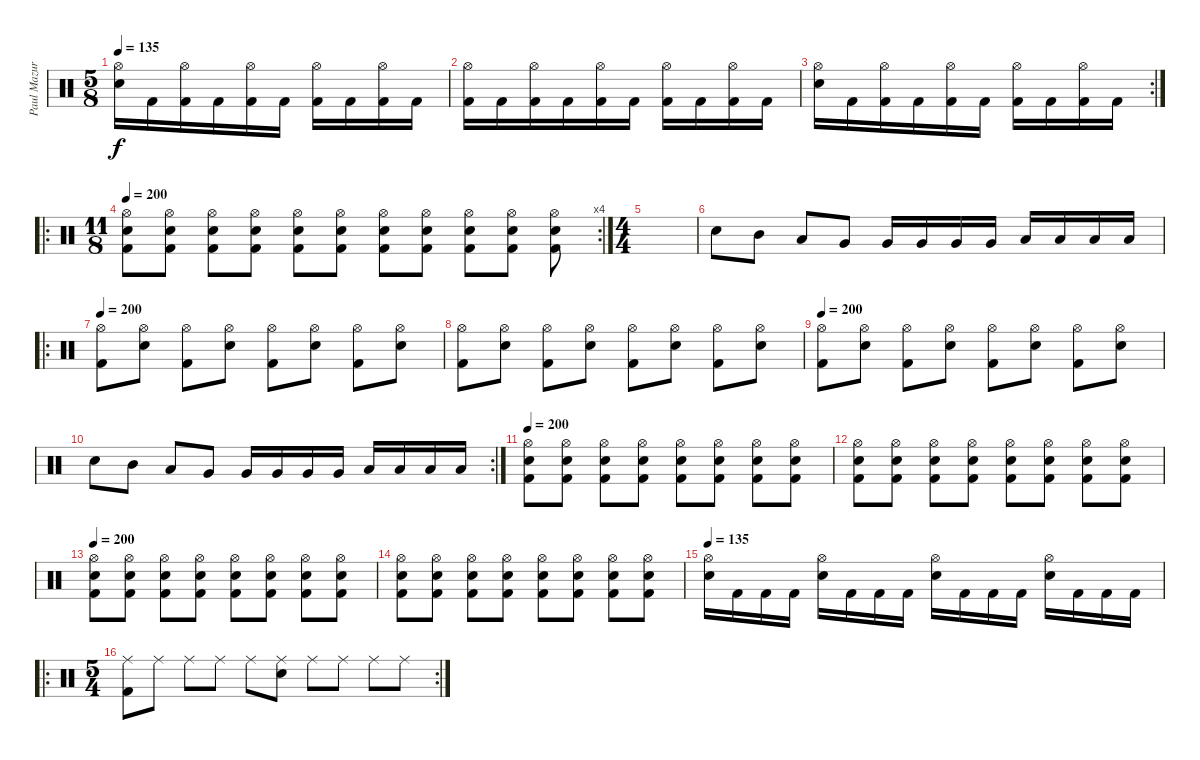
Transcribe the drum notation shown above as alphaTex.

\track ("Paul Mazurkiewicz" "Paul Mazur") {instrument percussion}
\staff {score}
\articulation defaults
\ts (5 8)
\tempo 135
\clef neutral
\ks c
("Hi-Hat (open)" "Snare (hit) 2").16{dy f} "Kick (hit) 2".16 ("Hi-Hat (open)" "Kick (hit) 2").16 "Kick (hit) 2".16 ("Hi-Hat (open)" "Kick (hit) 2").16 "Kick (hit) 2".16 ("Hi-Hat (open)" "Kick (hit) 2").16 "Kick (hit) 2".16 ("Hi-Hat (open)" "Kick (hit) 2").16 "Kick (hit) 2".16 |
("Hi-Hat (open)" "Kick (hit) 2").16 "Kick (hit) 2".16 ("Hi-Hat (open)" "Kick (hit) 2").16 "Kick (hit) 2".16 ("Hi-Hat (open)" "Kick (hit) 2").16 "Kick (hit) 2".16 ("Hi-Hat (open)" "Kick (hit) 2").16 "Kick (hit) 2".16 ("Hi-Hat (open)" "Kick (hit) 2").16 "Kick (hit) 2".16 |
\rc 2
("Hi-Hat (open)" "Snare (hit) 2").16 "Kick (hit) 2".16 ("Hi-Hat (open)" "Kick (hit) 2").16 "Kick (hit) 2".16 ("Hi-Hat (open)" "Kick (hit) 2").16 "Kick (hit) 2".16 ("Hi-Hat (open)" "Kick (hit) 2").16 "Kick (hit) 2".16 ("Hi-Hat (open)" "Kick (hit) 2").16 "Kick (hit) 2".16 |
\ro
\rc 4
\ts (11 8)
\tempo 200
("Hi-Hat (open)" "Kick (hit) 2" "Snare (hit) 2").8 ("Hi-Hat (open)" "Kick (hit) 2" "Snare (hit) 2").8 ("Hi-Hat (open)" "Kick (hit) 2" "Snare (hit) 2").8 ("Hi-Hat (open)" "Kick (hit) 2" "Snare (hit) 2").8 ("Hi-Hat (open)" "Kick (hit) 2" "Snare (hit) 2").8 ("Hi-Hat (open)" "Kick (hit) 2" "Snare (hit) 2").8 ("Hi-Hat (open)" "Kick (hit) 2" "Snare (hit) 2").8 ("Hi-Hat (open)" "Kick (hit) 2" "Snare (hit) 2").8 ("Hi-Hat (open)" "Kick (hit) 2" "Snare (hit) 2").8 ("Hi-Hat (open)" "Kick (hit) 2" "Snare (hit) 2").8 ("Hi-Hat (open)" "Kick (hit) 2" "Snare (hit) 2").8 |
\ts (4 4)
|
"Snare (hit) 2".8 "Mid Tom (hit)".8 "Low Tom (hit)".8 "Very Low Tom (hit)".8 "Very Low Tom (hit)".16 "Very Low Tom (hit)".16 "Very Low Tom (hit)".16 "Very Low Tom (hit)".16 "Low Floor Tom (hit)".16 "Low Floor Tom (hit)".16 "Low Floor Tom (hit)".16 "Low Floor Tom (hit)".16 |
\ro
\tempo 200
("Hi-Hat (open)" "Kick (hit) 2").8 ("Snare (hit) 2" "Hi-Hat (open)").8 ("Hi-Hat (open)" "Kick (hit) 2").8 ("Snare (hit) 2" "Hi-Hat (open)").8 ("Hi-Hat (open)" "Kick (hit) 2").8 ("Snare (hit) 2" "Hi-Hat (open)").8 ("Hi-Hat (open)" "Kick (hit) 2").8 ("Snare (hit) 2" "Hi-Hat (open)").8 |
("Hi-Hat (open)" "Kick (hit) 2").8 ("Snare (hit) 2" "Hi-Hat (open)").8 ("Hi-Hat (open)" "Kick (hit) 2").8 ("Snare (hit) 2" "Hi-Hat (open)").8 ("Hi-Hat (open)" "Kick (hit) 2").8 ("Snare (hit) 2" "Hi-Hat (open)").8 ("Hi-Hat (open)" "Kick (hit) 2").8 ("Snare (hit) 2" "Hi-Hat (open)").8 |
\tempo 200
("Hi-Hat (open)" "Kick (hit) 2").8 ("Snare (hit) 2" "Hi-Hat (open)").8 ("Hi-Hat (open)" "Kick (hit) 2").8 ("Snare (hit) 2" "Hi-Hat (open)").8 ("Hi-Hat (open)" "Kick (hit) 2").8 ("Snare (hit) 2" "Hi-Hat (open)").8 ("Hi-Hat (open)" "Kick (hit) 2").8 ("Snare (hit) 2" "Hi-Hat (open)").8 |
\rc 2 "Snare (hit) 2".8 "Mid Tom (hit)".8 "Low Tom (hit)".8 "Very Low Tom (hit)".8 "Very Low Tom (hit)".16 "Very Low Tom (hit)".16 "Very Low Tom (hit)".16 "Very Low Tom (hit)".16 "Low Floor Tom (hit)".16 "Low Floor Tom (hit)".16 "Low Floor Tom (hit)".16 "Low Floor Tom (hit)".16
|
\tempo 200
("Hi-Hat (open)" "Snare (hit) 2" "Kick (hit) 2").8 ("Hi-Hat (open)" "Snare (hit) 2" "Kick (hit) 2").8 ("Hi-Hat (open)" "Snare (hit) 2" "Kick (hit) 2").8 ("Hi-Hat (open)" "Snare (hit) 2" "Kick (hit) 2").8 ("Hi-Hat (open)" "Snare (hit) 2" "Kick (hit) 2").8 ("Hi-Hat (open)" "Snare (hit) 2" "Kick (hit) 2").8 ("Hi-Hat (open)" "Snare (hit) 2" "Kick (hit) 2").8 ("Hi-Hat (open)" "Snare (hit) 2" "Kick (hit) 2").8 |
("Hi-Hat (open)" "Snare (hit) 2" "Kick (hit) 2").8 ("Hi-Hat (open)" "Snare (hit) 2" "Kick (hit) 2").8 ("Hi-Hat (open)" "Snare (hit) 2" "Kick (hit) 2").8 ("Hi-Hat (open)" "Snare (hit) 2" "Kick (hit) 2").8 ("Hi-Hat (open)" "Snare (hit) 2" "Kick (hit) 2").8 ("Hi-Hat (open)" "Snare (hit) 2" "Kick (hit) 2").8 ("Hi-Hat (open)" "Snare (hit) 2" "Kick (hit) 2").8 ("Hi-Hat (open)" "Snare (hit) 2" "Kick (hit) 2").8 |
\tempo 200
("Hi-Hat (open)" "Snare (hit) 2" "Kick (hit) 2").8 ("Hi-Hat (open)" "Snare (hit) 2" "Kick (hit) 2").8 ("Hi-Hat (open)" "Snare (hit) 2" "Kick (hit) 2").8 ("Hi-Hat (open)" "Snare (hit) 2" "Kick (hit) 2").8 ("Hi-Hat (open)" "Snare (hit) 2" "Kick (hit) 2").8 ("Hi-Hat (open)" "Snare (hit) 2" "Kick (hit) 2").8 ("Hi-Hat (open)" "Snare (hit) 2" "Kick (hit) 2").8 ("Hi-Hat (open)" "Snare (hit) 2" "Kick (hit) 2").8 |
("Hi-Hat (open)" "Snare (hit) 2" "Kick (hit) 2").8 ("Hi-Hat (open)" "Snare (hit) 2" "Kick (hit) 2").8 ("Hi-Hat (open)" "Snare (hit) 2" "Kick (hit) 2").8 ("Hi-Hat (open)" "Snare (hit) 2" "Kick (hit) 2").8 ("Hi-Hat (open)" "Snare (hit) 2" "Kick (hit) 2").8 ("Hi-Hat (open)" "Snare (hit) 2" "Kick (hit) 2").8 ("Hi-Hat (open)" "Snare (hit) 2" "Kick (hit) 2").8 ("Hi-Hat (open)" "Snare (hit) 2" "Kick (hit) 2").8 |
\tempo 135
("Hi-Hat (open)" "Snare (hit) 2").16 "Kick (hit) 2".16 "Kick (hit) 2".16 "Kick (hit) 2".16 ("Hi-Hat (open)" "Snare (hit) 2").16 "Kick (hit) 2".16 "Kick (hit) 2".16 "Kick (hit) 2".16 ("Hi-Hat (open)" "Snare (hit) 2").16 "Kick (hit) 2".16 "Kick (hit) 2".16 "Kick (hit) 2".16 ("Hi-Hat (open)" "Snare (hit) 2").16 "Kick (hit) 2".16 "Kick (hit) 2".16 "Kick (hit) 2".16 |
\ro
\rc 2
\ts (5 4)
("Kick (hit) 2" "Ride (middle)").8 "Ride (middle)".8 "Ride (middle)".8 "Ride (middle)".8 "Ride (middle)".8 ("Ride (middle)" "Snare (hit) 2").8 "Ride (middle)".8 "Ride (middle)".8 "Ride (middle)".8 "Ride (middle)".8
